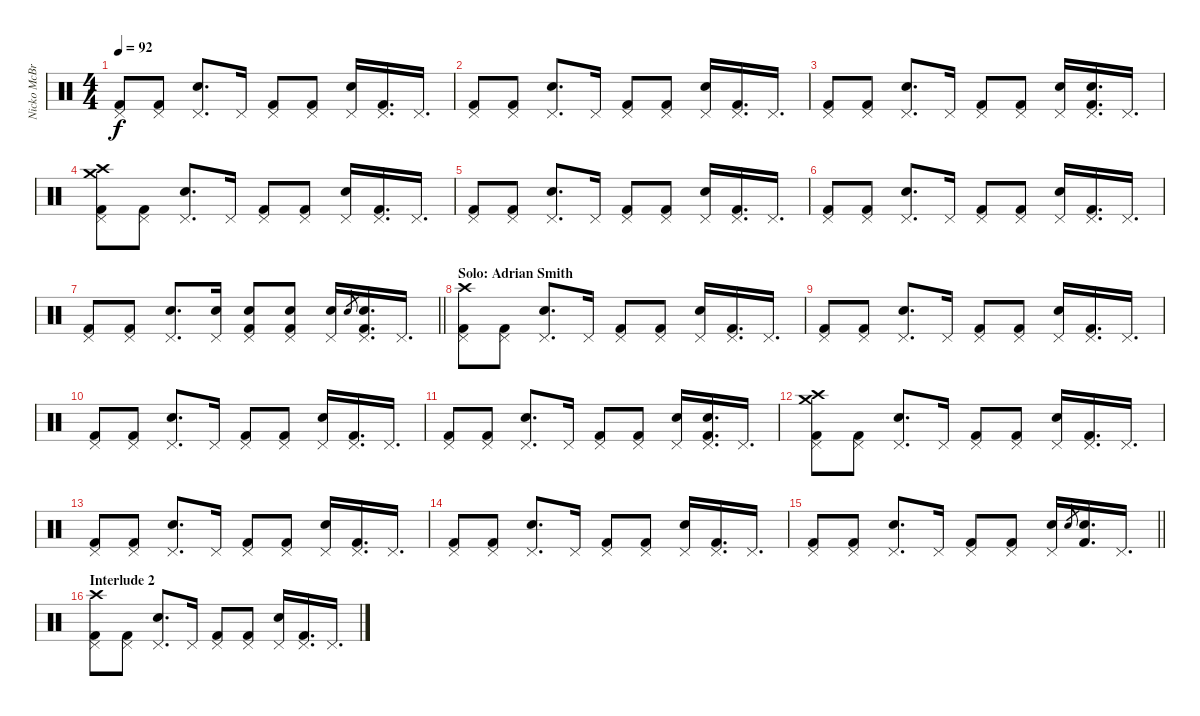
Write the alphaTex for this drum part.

\track ("Nicko McBrain" "Nicko McBr") {instrument percussion}
\staff {score}
\articulation defaults
\ts (4 4)
\tempo 92
\clef neutral
\ks c
("Pedal Hi-Hat (hit)" "Kick (hit) 2").8{dy f} ("Pedal Hi-Hat (hit)" "Kick (hit) 2").8 ("Electric Snare (hit)" "Pedal Hi-Hat (hit)").8{d} "Pedal Hi-Hat (hit)".16 ("Pedal Hi-Hat (hit)" "Kick (hit) 2").8 ("Pedal Hi-Hat (hit)" "Kick (hit) 2").8 ("Electric Snare (hit)" "Pedal Hi-Hat (hit)").16 ("Pedal Hi-Hat (hit)" "Kick (hit) 2").16{d} "Pedal Hi-Hat (hit)".16{d} |
("Pedal Hi-Hat (hit)" "Kick (hit) 2").8 ("Pedal Hi-Hat (hit)" "Kick (hit) 2").8 ("Electric Snare (hit)" "Pedal Hi-Hat (hit)").8{d} "Pedal Hi-Hat (hit)".16 ("Pedal Hi-Hat (hit)" "Kick (hit) 2").8 ("Pedal Hi-Hat (hit)" "Kick (hit) 2").8 ("Electric Snare (hit)" "Pedal Hi-Hat (hit)").16 ("Pedal Hi-Hat (hit)" "Kick (hit) 2").16{d} "Pedal Hi-Hat (hit)".16{d} |
("Pedal Hi-Hat (hit)" "Kick (hit) 2").8 ("Pedal Hi-Hat (hit)" "Kick (hit) 2").8 ("Electric Snare (hit)" "Pedal Hi-Hat (hit)").8{d} "Pedal Hi-Hat (hit)".16 ("Pedal Hi-Hat (hit)" "Kick (hit) 2").8 ("Pedal Hi-Hat (hit)" "Kick (hit) 2").8 ("Electric Snare (hit)" "Pedal Hi-Hat (hit)").16 ("Pedal Hi-Hat (hit)" "Electric Snare (hit)" "Kick (hit) 2").16{d} "Pedal Hi-Hat (hit)".16{d} |
("Pedal Hi-Hat (hit)" "Crash high (hit)" "Crash medium (hit)" "Kick (hit) 2").8 ("Pedal Hi-Hat (hit)" "Kick (hit) 2").8 ("Electric Snare (hit)" "Pedal Hi-Hat (hit)").8{d} "Pedal Hi-Hat (hit)".16 ("Pedal Hi-Hat (hit)" "Kick (hit) 2").8 ("Pedal Hi-Hat (hit)" "Kick (hit) 2").8 ("Electric Snare (hit)" "Pedal Hi-Hat (hit)").16 ("Pedal Hi-Hat (hit)" "Kick (hit) 2").16{d} "Pedal Hi-Hat (hit)".16{d} |
("Pedal Hi-Hat (hit)" "Kick (hit) 2").8 ("Pedal Hi-Hat (hit)" "Kick (hit) 2").8 ("Electric Snare (hit)" "Pedal Hi-Hat (hit)").8{d} "Pedal Hi-Hat (hit)".16 ("Pedal Hi-Hat (hit)" "Kick (hit) 2").8 ("Pedal Hi-Hat (hit)" "Kick (hit) 2").8 ("Electric Snare (hit)" "Pedal Hi-Hat (hit)").16 ("Pedal Hi-Hat (hit)" "Kick (hit) 2").16{d} "Pedal Hi-Hat (hit)".16{d} |
("Pedal Hi-Hat (hit)" "Kick (hit) 2").8 ("Pedal Hi-Hat (hit)" "Kick (hit) 2").8 ("Electric Snare (hit)" "Pedal Hi-Hat (hit)").8{d} "Pedal Hi-Hat (hit)".16 ("Pedal Hi-Hat (hit)" "Kick (hit) 2").8 ("Pedal Hi-Hat (hit)" "Kick (hit) 2").8 ("Electric Snare (hit)" "Pedal Hi-Hat (hit)").16 ("Pedal Hi-Hat (hit)" "Kick (hit) 2").16{d} "Pedal Hi-Hat (hit)".16{d} |
\barLineRight lightlight
("Pedal Hi-Hat (hit)" "Kick (hit) 2").8 ("Pedal Hi-Hat (hit)" "Kick (hit) 2").8 ("Electric Snare (hit)" "Pedal Hi-Hat (hit)").8{d} ("Pedal Hi-Hat (hit)" "Electric Snare (hit)").16 ("Pedal Hi-Hat (hit)" "Electric Snare (hit)" "Kick (hit) 2").8 ("Pedal Hi-Hat (hit)" "Electric Snare (hit)" "Kick (hit) 2").8 ("Pedal Hi-Hat (hit)" "Electric Snare (hit)").16 "Electric Snare (hit)".8{gr} ("Pedal Hi-Hat (hit)" "Electric Snare (hit)" "Kick (hit) 2").16{d} "Pedal Hi-Hat (hit)".16{d} |
\section ("" "Solo: Adrian Smith")
("Pedal Hi-Hat (hit)" "Crash high (hit)" "Kick (hit) 2").8 ("Pedal Hi-Hat (hit)" "Kick (hit) 2").8 ("Electric Snare (hit)" "Pedal Hi-Hat (hit)").8{d} "Pedal Hi-Hat (hit)".16 ("Pedal Hi-Hat (hit)" "Kick (hit) 2").8 ("Pedal Hi-Hat (hit)" "Kick (hit) 2").8 ("Electric Snare (hit)" "Pedal Hi-Hat (hit)").16 ("Pedal Hi-Hat (hit)" "Kick (hit) 2").16{d} "Pedal Hi-Hat (hit)".16{d} |
("Pedal Hi-Hat (hit)" "Kick (hit) 2").8 ("Pedal Hi-Hat (hit)" "Kick (hit) 2").8 ("Electric Snare (hit)" "Pedal Hi-Hat (hit)").8{d} "Pedal Hi-Hat (hit)".16 ("Pedal Hi-Hat (hit)" "Kick (hit) 2").8 ("Pedal Hi-Hat (hit)" "Kick (hit) 2").8 ("Electric Snare (hit)" "Pedal Hi-Hat (hit)").16 ("Pedal Hi-Hat (hit)" "Kick (hit) 2").16{d} "Pedal Hi-Hat (hit)".16{d} |
("Pedal Hi-Hat (hit)" "Kick (hit) 2").8 ("Pedal Hi-Hat (hit)" "Kick (hit) 2").8 ("Electric Snare (hit)" "Pedal Hi-Hat (hit)").8{d} "Pedal Hi-Hat (hit)".16 ("Pedal Hi-Hat (hit)" "Kick (hit) 2").8 ("Pedal Hi-Hat (hit)" "Kick (hit) 2").8 ("Electric Snare (hit)" "Pedal Hi-Hat (hit)").16 ("Pedal Hi-Hat (hit)" "Kick (hit) 2").16{d} "Pedal Hi-Hat (hit)".16{d} |
("Pedal Hi-Hat (hit)" "Kick (hit) 2").8 ("Pedal Hi-Hat (hit)" "Kick (hit) 2").8 ("Electric Snare (hit)" "Pedal Hi-Hat (hit)").8{d} "Pedal Hi-Hat (hit)".16 ("Pedal Hi-Hat (hit)" "Kick (hit) 2").8 ("Pedal Hi-Hat (hit)" "Kick (hit) 2").8 ("Electric Snare (hit)" "Pedal Hi-Hat (hit)").16 ("Pedal Hi-Hat (hit)" "Electric Snare (hit)" "Kick (hit) 2").16{d} "Pedal Hi-Hat (hit)".16{d} |
("Pedal Hi-Hat (hit)" "Crash high (hit)" "Crash medium (hit)" "Kick (hit) 2").8 ("Pedal Hi-Hat (hit)" "Kick (hit) 2").8 ("Electric Snare (hit)" "Pedal Hi-Hat (hit)").8{d} "Pedal Hi-Hat (hit)".16 ("Pedal Hi-Hat (hit)" "Kick (hit) 2").8 ("Pedal Hi-Hat (hit)" "Kick (hit) 2").8 ("Electric Snare (hit)" "Pedal Hi-Hat (hit)").16 ("Pedal Hi-Hat (hit)" "Kick (hit) 2").16{d} "Pedal Hi-Hat (hit)".16{d} |
("Pedal Hi-Hat (hit)" "Kick (hit) 2").8 ("Pedal Hi-Hat (hit)" "Kick (hit) 2").8 ("Electric Snare (hit)" "Pedal Hi-Hat (hit)").8{d} "Pedal Hi-Hat (hit)".16 ("Pedal Hi-Hat (hit)" "Kick (hit) 2").8 ("Pedal Hi-Hat (hit)" "Kick (hit) 2").8 ("Electric Snare (hit)" "Pedal Hi-Hat (hit)").16 ("Pedal Hi-Hat (hit)" "Kick (hit) 2").16{d} "Pedal Hi-Hat (hit)".16{d} |
("Pedal Hi-Hat (hit)" "Kick (hit) 2").8 ("Pedal Hi-Hat (hit)" "Kick (hit) 2").8 ("Electric Snare (hit)" "Pedal Hi-Hat (hit)").8{d} "Pedal Hi-Hat (hit)".16 ("Pedal Hi-Hat (hit)" "Kick (hit) 2").8 ("Pedal Hi-Hat (hit)" "Kick (hit) 2").8 ("Electric Snare (hit)" "Pedal Hi-Hat (hit)").16 ("Pedal Hi-Hat (hit)" "Kick (hit) 2").16{d} "Pedal Hi-Hat (hit)".16{d} |
\barLineRight lightlight
("Pedal Hi-Hat (hit)" "Kick (hit) 2").8 ("Pedal Hi-Hat (hit)" "Kick (hit) 2").8 ("Electric Snare (hit)" "Pedal Hi-Hat (hit)").8{d} "Pedal Hi-Hat (hit)".16 ("Pedal Hi-Hat (hit)" "Kick (hit) 2").8 ("Pedal Hi-Hat (hit)" "Kick (hit) 2").8 ("Electric Snare (hit)" "Pedal Hi-Hat (hit)").16 "Electric Snare (hit)".8{gr} ("Electric Snare (hit)" "Kick (hit) 2").16{d} "Pedal Hi-Hat (hit)".16{d} |
\section ("" "Interlude 2")
("Pedal Hi-Hat (hit)" "Crash high (hit)" "Kick (hit) 2").8 ("Pedal Hi-Hat (hit)" "Kick (hit) 2").8 ("Electric Snare (hit)" "Pedal Hi-Hat (hit)").8{d} "Pedal Hi-Hat (hit)".16 ("Pedal Hi-Hat (hit)" "Kick (hit) 2").8 ("Pedal Hi-Hat (hit)" "Kick (hit) 2").8 ("Electric Snare (hit)" "Pedal Hi-Hat (hit)").16 ("Pedal Hi-Hat (hit)" "Kick (hit) 2").16{d} "Pedal Hi-Hat (hit)".16{d}
